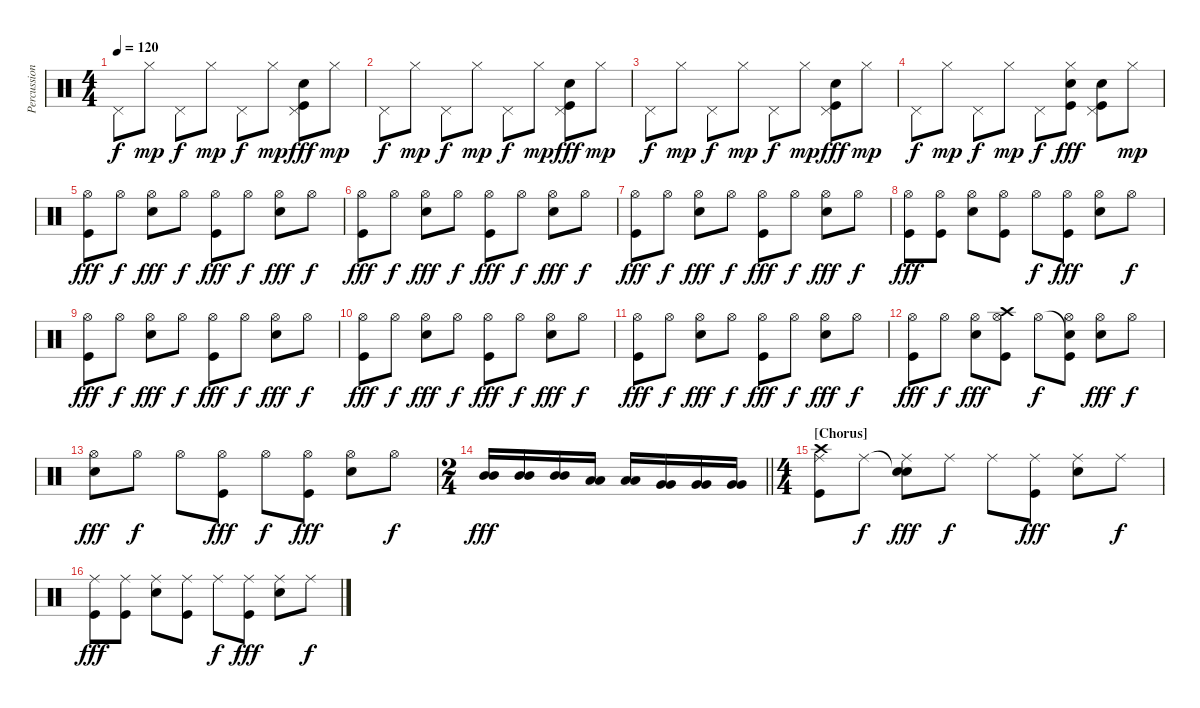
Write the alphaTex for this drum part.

\track ("Percussion" "Percussion") {instrument percussion}
\staff {score}
\articulation defaults
\ts (4 4)
\tempo 120
\clef neutral
\ks c "Pedal Hi-Hat (hit)".8{dy f} "Hi-Hat (closed)".8{dy mp} "Pedal Hi-Hat (hit)".8{dy f} "Hi-Hat (closed)".8{dy mp} "Pedal Hi-Hat (hit)".8{dy f} "Hi-Hat (closed)".8{dy mp}
("Pedal Hi-Hat (hit)" "Snare (hit) 2" "Kick (hit)").8{dy fff} "Hi-Hat (closed)".8{dy mp} |
"Pedal Hi-Hat (hit)".8{dy f} "Hi-Hat (closed)".8{dy mp} "Pedal Hi-Hat (hit)".8{dy f} "Hi-Hat (closed)".8{dy mp} "Pedal Hi-Hat (hit)".8{dy f} "Hi-Hat (closed)".8{dy mp} ("Pedal Hi-Hat (hit)" "Snare (hit) 2" "Kick (hit)").8{dy fff} "Hi-Hat (closed)".8{dy mp} |
"Pedal Hi-Hat (hit)".8{dy f} "Hi-Hat (closed)".8{dy mp} "Pedal Hi-Hat (hit)".8{dy f} "Hi-Hat (closed)".8{dy mp} "Pedal Hi-Hat (hit)".8{dy f} "Hi-Hat (closed)".8{dy mp} ("Pedal Hi-Hat (hit)" "Snare (hit) 2" "Kick (hit)").8{dy fff} "Hi-Hat (closed)".8{dy mp} |
"Pedal Hi-Hat (hit)".8{dy f} "Hi-Hat (closed)".8{dy mp} "Pedal Hi-Hat (hit)".8{dy f} "Hi-Hat (closed)".8{dy mp} "Pedal Hi-Hat (hit)".8{dy f} ("Hi-Hat (closed)" "Snare (hit) 2" "Kick (hit)").8{dy fff} ("Pedal Hi-Hat (hit)" "Snare (hit) 2" "Kick (hit)").8 "Hi-Hat (closed)".8{dy mp} |
("Hi-Hat (open)" "Kick (hit)").8{dy fff} "Hi-Hat (open)".8{dy f} ("Hi-Hat (open)" "Snare (hit) 2").8{dy fff} "Hi-Hat (open)".8{dy f} ("Hi-Hat (open)" "Kick (hit)").8{dy fff} "Hi-Hat (open)".8{dy f} ("Hi-Hat (open)" "Snare (hit) 2").8{dy fff} "Hi-Hat (open)".8{dy f} |
("Hi-Hat (open)" "Kick (hit)").8{dy fff} "Hi-Hat (open)".8{dy f} ("Hi-Hat (open)" "Snare (hit) 2").8{dy fff} "Hi-Hat (open)".8{dy f} ("Hi-Hat (open)" "Kick (hit)").8{dy fff} "Hi-Hat (open)".8{dy f} ("Hi-Hat (open)" "Snare (hit) 2").8{dy fff} "Hi-Hat (open)".8{dy f} |
("Hi-Hat (open)" "Kick (hit)").8{dy fff} "Hi-Hat (open)".8{dy f} ("Hi-Hat (open)" "Snare (hit) 2").8{dy fff} "Hi-Hat (open)".8{dy f} ("Hi-Hat (open)" "Kick (hit)").8{dy fff} "Hi-Hat (open)".8{dy f} ("Hi-Hat (open)" "Snare (hit) 2").8{dy fff} "Hi-Hat (open)".8{dy f} |
("Hi-Hat (open)" "Kick (hit)").8{dy fff} ("Hi-Hat (open)" "Kick (hit)").8 ("Hi-Hat (open)" "Snare (hit) 2").8 ("Hi-Hat (open)" "Kick (hit)").8 "Hi-Hat (open)".8{dy f} ("Hi-Hat (open)" "Kick (hit)").8{dy fff} ("Hi-Hat (open)" "Snare (hit) 2").8 "Hi-Hat (open)".8{dy f} |
("Hi-Hat (open)" "Kick (hit)").8{dy fff} "Hi-Hat (open)".8{dy f} ("Hi-Hat (open)" "Snare (hit) 2").8{dy fff} "Hi-Hat (open)".8{dy f} ("Hi-Hat (open)" "Kick (hit)").8{dy fff} "Hi-Hat (open)".8{dy f} ("Hi-Hat (open)" "Snare (hit) 2").8{dy fff} "Hi-Hat (open)".8{dy f} |
("Hi-Hat (open)" "Kick (hit)").8{dy fff} "Hi-Hat (open)".8{dy f} ("Hi-Hat (open)" "Snare (hit) 2").8{dy fff} "Hi-Hat (open)".8{dy f} ("Hi-Hat (open)" "Kick (hit)").8{dy fff} "Hi-Hat (open)".8{dy f} ("Hi-Hat (open)" "Snare (hit) 2").8{dy fff} "Hi-Hat (open)".8{dy f} |
("Hi-Hat (open)" "Kick (hit)").8{dy fff} "Hi-Hat (open)".8{dy f} ("Hi-Hat (open)" "Snare (hit) 2").8{dy fff} "Hi-Hat (open)".8{dy f} ("Hi-Hat (open)" "Kick (hit)").8{dy fff} "Hi-Hat (open)".8{dy f} ("Hi-Hat (open)" "Snare (hit) 2").8{dy fff} "Hi-Hat (open)".8{dy f} |
("Hi-Hat (open)" "Kick (hit)").8{dy fff} "Hi-Hat (open)".8{dy f} ("Hi-Hat (open)" "Snare (hit) 2").8{dy fff} ("Crash high (hit)" "Hi-Hat (open)" "Kick (hit)").8 "Hi-Hat (open)".8{dy f} ("Snare (hit)"{t} "Hi-Hat (open)" "Kick (hit)").8 ("Hi-Hat (open)" "Snare (hit) 2").8{dy fff} "Hi-Hat (open)".8{dy f} |
("Hi-Hat (open)" "Snare (hit) 2").8{dy fff} "Hi-Hat (open)".8{dy f} "Hi-Hat (open)".8 ("Hi-Hat (open)" "Kick (hit)").8{dy fff} "Hi-Hat (open)".8{dy f} ("Hi-Hat (open)" "Kick (hit)").8{dy fff} ("Hi-Hat (open)" "Snare (hit) 2").8 "Hi-Hat (open)".8{dy f} |
\ts (2 4)
\barLineRight lightlight
("Mid Tom (hit)" "Mid Tom (hit)").16{dy fff} ("Mid Tom (hit)" "Mid Tom (hit)").16 ("Mid Tom (hit)" "Mid Tom (hit)").16 ("Low Tom (hit)" "Low Tom (hit)").16 ("Low Tom (hit)" "Low Tom (hit)").16 ("Very Low Tom (hit)" "Very Low Tom (hit)").16 ("Very Low Tom (hit)" "Very Low Tom (hit)").16 ("Very Low Tom (hit)" "Very Low Tom (hit)").16 |
\ts (4 4)
\section ("" "[Chorus]")
("Crash high (hit)" "Ride (middle)" "Kick (hit)").8 "Ride (middle)".8{dy f} ("Snare (hit)"{t} "Ride (middle)" "Snare (hit) 2").8{dy fff} "Ride (middle)".8{dy f} "Ride (middle)".8 ("Ride (middle)" "Kick (hit)").8{dy fff} ("Ride (middle)" "Snare (hit) 2").8 "Ride (middle)".8{dy f} |
("Ride (middle)" "Kick (hit)").8{dy fff} ("Ride (middle)" "Kick (hit)").8 ("Ride (middle)" "Snare (hit) 2").8 ("Ride (middle)" "Kick (hit)").8 "Ride (middle)".8{dy f} ("Ride (middle)" "Kick (hit)").8{dy fff} ("Ride (middle)" "Snare (hit) 2").8 "Ride (middle)".8{dy f}
